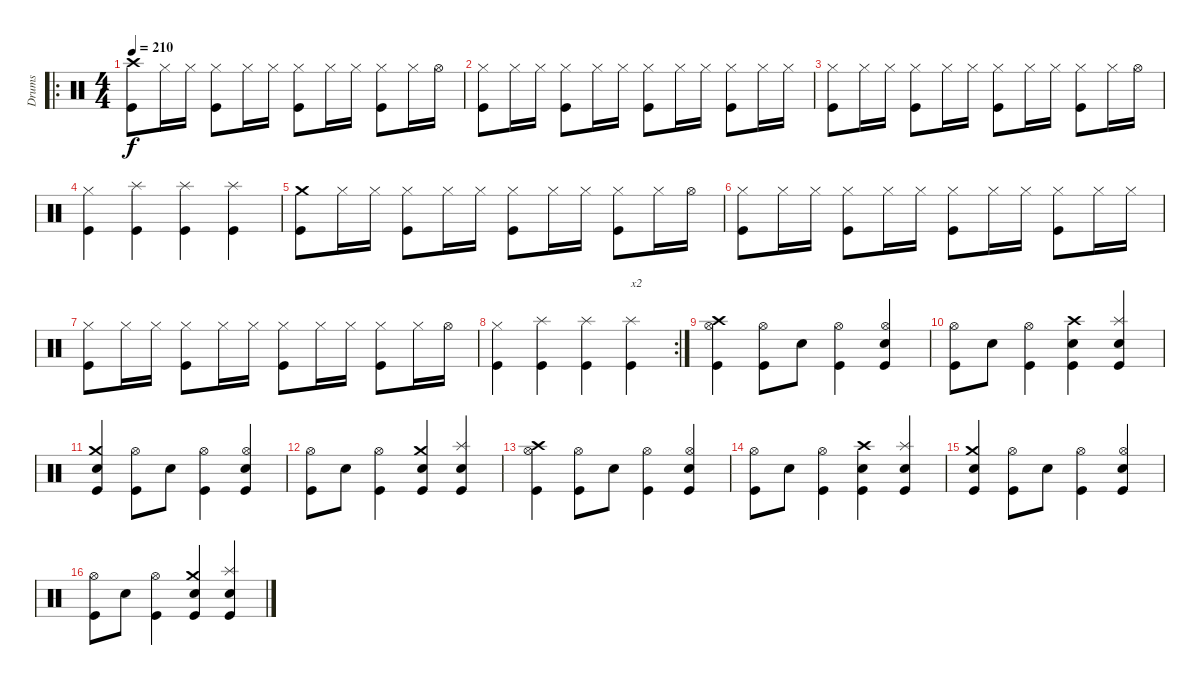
\track ("Drums" "Drums") {instrument percussion}
\staff {score}
\articulation defaults
\ro
\ts (4 4)
\tempo 210
\clef neutral
\ks c
("Crash high (hit)" "Kick (hit)").8{dy f} "Hi-Hat (closed)".16 "Hi-Hat (closed)".16 ("Hi-Hat (closed)" "Kick (hit)").8 "Hi-Hat (closed)".16 "Hi-Hat (closed)".16 ("Hi-Hat (closed)" "Kick (hit)").8 "Hi-Hat (closed)".16 "Hi-Hat (closed)".16 ("Hi-Hat (closed)" "Kick (hit)").8 "Hi-Hat (closed)".16 "Hi-Hat (open)".16 |
("Hi-Hat (closed)" "Kick (hit)").8 "Hi-Hat (closed)".16 "Hi-Hat (closed)".16 ("Hi-Hat (closed)" "Kick (hit)").8 "Hi-Hat (closed)".16 "Hi-Hat (closed)".16 ("Hi-Hat (closed)" "Kick (hit)").8 "Hi-Hat (closed)".16 "Hi-Hat (closed)".16 ("Hi-Hat (closed)" "Kick (hit)").8 "Hi-Hat (closed)".16 "Hi-Hat (closed)".16 |
("Hi-Hat (closed)" "Kick (hit)").8 "Hi-Hat (closed)".16 "Hi-Hat (closed)".16 ("Hi-Hat (closed)" "Kick (hit)").8 "Hi-Hat (closed)".16 "Hi-Hat (closed)".16 ("Hi-Hat (closed)" "Kick (hit)").8 "Hi-Hat (closed)".16 "Hi-Hat (closed)".16 ("Hi-Hat (closed)" "Kick (hit)").8 "Hi-Hat (closed)".16 "Hi-Hat (open)".16 |
("Hi-Hat (closed)" "Kick (hit)").4 ("Splash (hit)" "Kick (hit)").4 ("Splash (hit)" "Kick (hit)").4 ("Splash (hit)" "Kick (hit)").4 |
("Crash medium (hit)" "Kick (hit)").8 "Hi-Hat (closed)".16 "Hi-Hat (closed)".16 ("Hi-Hat (closed)" "Kick (hit)").8 "Hi-Hat (closed)".16 "Hi-Hat (closed)".16 ("Hi-Hat (closed)" "Kick (hit)").8 "Hi-Hat (closed)".16 "Hi-Hat (closed)".16 ("Hi-Hat (closed)" "Kick (hit)").8 "Hi-Hat (closed)".16 "Hi-Hat (open)".16 |
("Hi-Hat (closed)" "Kick (hit)").8 "Hi-Hat (closed)".16 "Hi-Hat (closed)".16 ("Hi-Hat (closed)" "Kick (hit)").8 "Hi-Hat (closed)".16 "Hi-Hat (closed)".16 ("Hi-Hat (closed)" "Kick (hit)").8 "Hi-Hat (closed)".16 "Hi-Hat (closed)".16 ("Hi-Hat (closed)" "Kick (hit)").8 "Hi-Hat (closed)".16 "Hi-Hat (closed)".16 |
("Hi-Hat (closed)" "Kick (hit)").8 "Hi-Hat (closed)".16 "Hi-Hat (closed)".16 ("Hi-Hat (closed)" "Kick (hit)").8 "Hi-Hat (closed)".16 "Hi-Hat (closed)".16 ("Hi-Hat (closed)" "Kick (hit)").8 "Hi-Hat (closed)".16 "Hi-Hat (closed)".16 ("Hi-Hat (closed)" "Kick (hit)").8 "Hi-Hat (closed)".16 "Hi-Hat (open)".16 |
\rc 2
("Hi-Hat (closed)" "Kick (hit)").4 ("Splash (hit)" "Kick (hit)").4 ("Splash (hit)" "Kick (hit)").4 ("Splash (hit)" "Kick (hit)").4{txt "x2"} |
("Crash high (hit)" "Hi-Hat (open)" "Kick (hit)").4 ("Hi-Hat (open)" "Kick (hit)").8 "Electric Snare (hit)".8 ("Hi-Hat (open)" "Kick (hit)").4 ("Hi-Hat (open)" "Electric Snare (hit)" "Kick (hit)").4 |
("Hi-Hat (open)" "Kick (hit)").8 "Electric Snare (hit)".8 ("Hi-Hat (open)" "Kick (hit)").4 ("Crash high (hit)" "Electric Snare (hit)" "Kick (hit)").4 ("Splash (hit)" "Electric Snare (hit)" "Kick (hit)").4 |
("Crash medium (hit)" "Electric Snare (hit)" "Kick (hit)").4 ("Hi-Hat (open)" "Kick (hit)").8 "Electric Snare (hit)".8 ("Hi-Hat (open)" "Kick (hit)").4 ("Hi-Hat (open)" "Electric Snare (hit)" "Kick (hit)").4 |
("Hi-Hat (open)" "Kick (hit)").8 "Electric Snare (hit)".8 ("Hi-Hat (open)" "Kick (hit)").4 ("Crash medium (hit)" "Electric Snare (hit)" "Kick (hit)").4 ("Splash (hit)" "Electric Snare (hit)" "Kick (hit)").4 |
("Crash high (hit)" "Hi-Hat (open)" "Kick (hit)").4 ("Hi-Hat (open)" "Kick (hit)").8 "Electric Snare (hit)".8 ("Hi-Hat (open)" "Kick (hit)").4 ("Hi-Hat (open)" "Electric Snare (hit)" "Kick (hit)").4 |
("Hi-Hat (open)" "Kick (hit)").8 "Electric Snare (hit)".8 ("Hi-Hat (open)" "Kick (hit)").4 ("Crash high (hit)" "Electric Snare (hit)" "Kick (hit)").4 ("Splash (hit)" "Electric Snare (hit)" "Kick (hit)").4 |
("Crash medium (hit)" "Electric Snare (hit)" "Kick (hit)").4 ("Hi-Hat (open)" "Kick (hit)").8 "Electric Snare (hit)".8 ("Hi-Hat (open)" "Kick (hit)").4 ("Hi-Hat (open)" "Electric Snare (hit)" "Kick (hit)").4 |
("Hi-Hat (open)" "Kick (hit)").8 "Electric Snare (hit)".8 ("Hi-Hat (open)" "Kick (hit)").4 ("Crash medium (hit)" "Electric Snare (hit)" "Kick (hit)").4 ("Splash (hit)" "Electric Snare (hit)" "Kick (hit)").4
